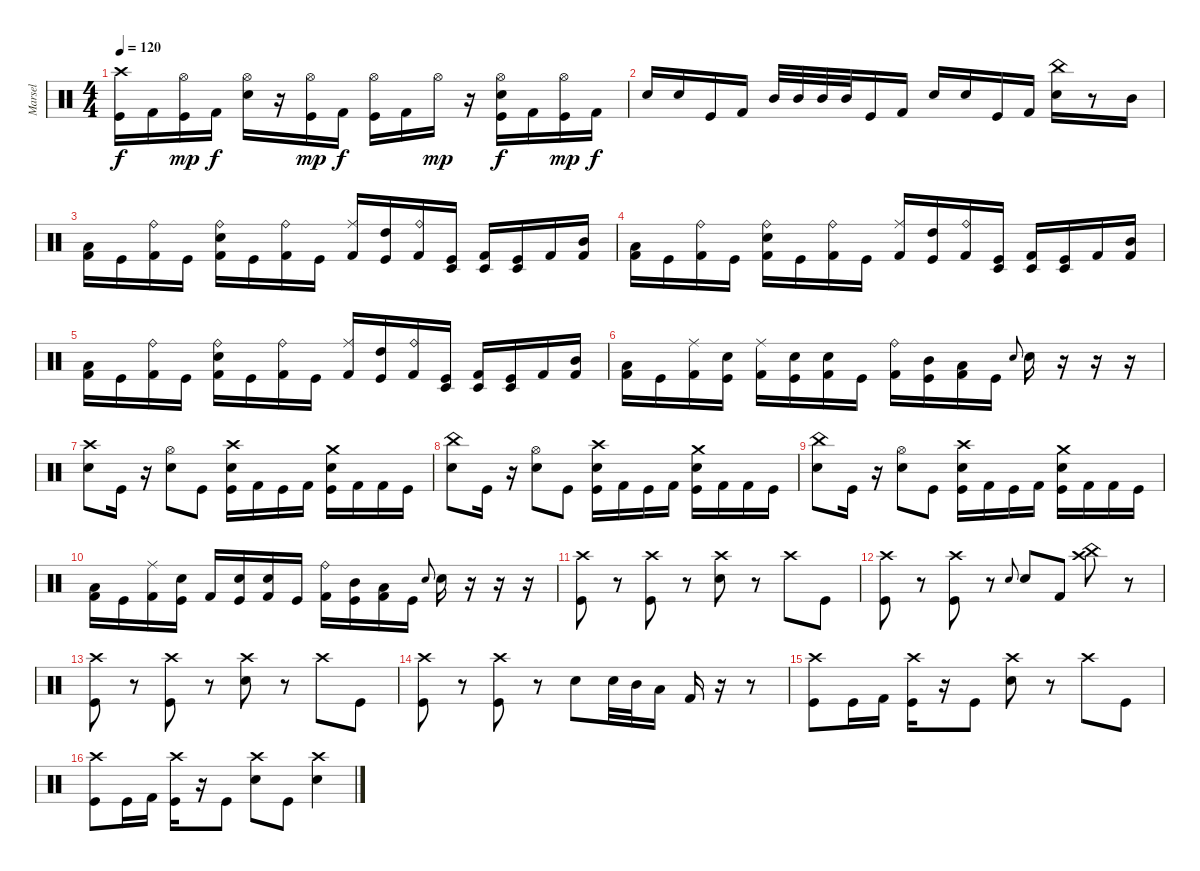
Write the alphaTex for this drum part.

\track ("Marsel" "Marsel") {instrument percussion}
\staff {score}
\articulation defaults
\ts (4 4)
\tempo 120
\clef neutral
\ks c
("Crash high (hit)" "Kick (hit)").16{dy f} "Kick (hit) 2".16 ("Hi-Hat (open)" "Kick (hit)").16{dy mp} "Kick (hit) 2".16{dy f} ("Hi-Hat (open)" "Snare (hit) 2").16 r.16 ("Hi-Hat (open)" "Kick (hit)").16{dy mp} "Kick (hit) 2".16{dy f} ("Hi-Hat (open)" "Kick (hit)").16 "Kick (hit) 2".16 "Hi-Hat (open)".16{dy mp} r.16 ("Hi-Hat (open)" "Snare (hit) 2" "Kick (hit)").16{dy f} "Kick (hit) 2".16 ("Hi-Hat (open)" "Kick (hit)").16{dy mp} "Kick (hit) 2".16{dy f} |
"Snare (hit) 2".16 "Snare (hit) 2".16 "Kick (hit)".16 "Kick (hit) 2".16 "Mid Tom (hit)".32 "Mid Tom (hit)".32 "Mid Tom (hit)".32 "Mid Tom (hit)".32 "Kick (hit)".16 "Kick (hit) 2".16 "Snare (hit) 2".16 "Snare (hit) 2".16 "Kick (hit)".16 "Kick (hit) 2".16 ("China (hit)" "Snare (hit) 2").16 r.8 "Mid Tom (hit)".16 |
("Low Tom (hit)" "Kick (hit) 2").16 "Kick (hit)".16 ("Ride (bell)" "Kick (hit) 2").16 "Kick (hit)".16 ("Ride (bell)" "Snare (hit) 2" "Kick (hit) 2").16 "Kick (hit)".16 ("Ride (bell)" "Kick (hit) 2").16 "Kick (hit)".16 ("Ride (middle)" "Kick (hit) 2").16 ("High Tom (hit)" "Kick (hit)").16 ("Ride (bell)" "Kick (hit) 2").16 ("Timbale low (hit)" "Kick (hit)").16 ("Timbale low (hit)" "Kick (hit) 2").16 ("Timbale low (hit)" "Kick (hit)").16 "Kick (hit) 2".16 ("Mid Tom (hit)" "Kick (hit) 2").16 |
("Low Tom (hit)" "Kick (hit) 2").16 "Kick (hit)".16 ("Ride (bell)" "Kick (hit) 2").16 "Kick (hit)".16 ("Ride (bell)" "Snare (hit) 2" "Kick (hit) 2").16 "Kick (hit)".16 ("Ride (bell)" "Kick (hit) 2").16 "Kick (hit)".16 ("Ride (middle)" "Kick (hit) 2").16 ("High Tom (hit)" "Kick (hit)").16 ("Ride (bell)" "Kick (hit) 2").16 ("Timbale low (hit)" "Kick (hit)").16 ("Timbale low (hit)" "Kick (hit) 2").16 ("Timbale low (hit)" "Kick (hit)").16 "Kick (hit) 2".16 ("Mid Tom (hit)" "Kick (hit) 2").16 |
("Low Tom (hit)" "Kick (hit) 2").16 "Kick (hit)".16 ("Ride (bell)" "Kick (hit) 2").16 "Kick (hit)".16 ("Ride (bell)" "Snare (hit) 2" "Kick (hit) 2").16 "Kick (hit)".16 ("Ride (bell)" "Kick (hit) 2").16 "Kick (hit)".16 ("Ride (middle)" "Kick (hit) 2").16 ("High Tom (hit)" "Kick (hit)").16 ("Ride (bell)" "Kick (hit) 2").16 ("Timbale low (hit)" "Kick (hit)").16 ("Timbale low (hit)" "Kick (hit) 2").16 ("Timbale low (hit)" "Kick (hit)").16 "Kick (hit) 2".16 ("Mid Tom (hit)" "Kick (hit) 2").16 |
("Low Tom (hit)" "Kick (hit) 2").16 "Kick (hit)".16 ("Ride (middle)" "Kick (hit) 2").16 ("Snare (hit) 2" "Kick (hit)").16 ("Ride (middle)" "Kick (hit) 2").16 ("Snare (hit) 2" "Kick (hit)").16 ("Snare (hit) 2" "Kick (hit) 2").16 "Kick (hit)".16 ("Ride (bell)" "Kick (hit) 2").16 ("Mid Tom (hit)" "Kick (hit)").16 ("Low Tom (hit)" "Kick (hit) 2").16 "Kick (hit)".16 "Snare (hit) 2".8{gr onbeat} "Snare (hit) 2".16 r.16 r.16 r.16 |
("Crash high (hit)" "Snare (hit) 2").8 "Kick (hit)".16 r.16 ("Hi-Hat (open)" "Snare (hit) 2").8 "Kick (hit)".8 ("Crash high (hit)" "Snare (hit) 2" "Kick (hit)").16 "Kick (hit) 2".16 "Kick (hit)".16 "Kick (hit) 2".16 ("Crash medium (hit)" "Snare (hit) 2" "Kick (hit)").16 "Kick (hit) 2".16 "Kick (hit) 2".16 "Kick (hit)".16 |
("China (hit)" "Snare (hit) 2").8 "Kick (hit)".16 r.16 ("Hi-Hat (open)" "Snare (hit) 2").8 "Kick (hit)".8 ("Crash high (hit)" "Snare (hit) 2" "Kick (hit)").16 "Kick (hit) 2".16 "Kick (hit)".16 "Kick (hit) 2".16 ("Crash medium (hit)" "Snare (hit) 2" "Kick (hit)").16 "Kick (hit) 2".16 "Kick (hit) 2".16 "Kick (hit)".16 |
("China (hit)" "Snare (hit) 2").8 "Kick (hit)".16 r.16 ("Hi-Hat (open)" "Snare (hit) 2").8 "Kick (hit)".8 ("Crash high (hit)" "Snare (hit) 2" "Kick (hit)").16 "Kick (hit) 2".16 "Kick (hit)".16 "Kick (hit) 2".16 ("Crash medium (hit)" "Snare (hit) 2" "Kick (hit)").16 "Kick (hit) 2".16 "Kick (hit) 2".16 "Kick (hit)".16 |
("Low Tom (hit)" "Kick (hit) 2").16 "Kick (hit)".16 ("Ride (middle)" "Kick (hit) 2").16 ("Snare (hit) 2" "Kick (hit)").16 "Kick (hit) 2".16 ("Snare (hit) 2" "Kick (hit)").16 ("Snare (hit) 2" "Kick (hit) 2").16 "Kick (hit)".16 ("Ride (bell)" "Kick (hit) 2").16 ("Mid Tom (hit)" "Kick (hit)").16 ("Low Tom (hit)" "Kick (hit) 2").16 "Kick (hit)".16 "Snare (hit) 2".8{gr onbeat} "Snare (hit) 2".16 r.16 r.16 r.16 |
("Crash high (hit)" "Kick (hit)").8 r.8 ("Crash high (hit)" "Kick (hit)").8 r.8 ("Crash high (hit)" "Snare (hit) 2").8 r.8 "Crash high (hit)".8 "Kick (hit)".8 |
("Crash high (hit)" "Kick (hit)").8 r.8 ("Crash high (hit)" "Kick (hit)").8 r.8 "Snare (hit) 2".8{gr onbeat} "Snare (hit) 2".8 "Kick (hit) 2".8 ("China (hit)" "Crash high (hit)").8 r.8 |
("Crash high (hit)" "Kick (hit)").8 r.8 ("Crash high (hit)" "Kick (hit)").8 r.8 ("Crash high (hit)" "Snare (hit) 2").8 r.8 "Crash high (hit)".8 "Kick (hit)".8 |
("Crash high (hit)" "Kick (hit)").8 r.8 ("Crash high (hit)" "Kick (hit)").8 r.8 "Snare (hit) 2".8 "Snare (hit) 2".32 "Mid Tom (hit)".32 "Low Tom (hit)".16 "Kick (hit) 2".16 r.16 r.8 |
("Crash high (hit)" "Kick (hit)").8 "Kick (hit)".16 "Kick (hit) 2".16 ("Crash high (hit)" "Kick (hit)").16 r.16 "Kick (hit)".8 ("Crash high (hit)" "Snare (hit) 2").8 r.8 "Crash high (hit)".8 "Kick (hit)".8 |
("Crash high (hit)" "Kick (hit)").8 "Kick (hit)".16 "Kick (hit) 2".16 ("Crash high (hit)" "Kick (hit)").16 r.16 "Kick (hit)".8 ("Crash high (hit)" "Snare (hit) 2").8 "Kick (hit)".8 ("Crash high (hit)" "Snare (hit) 2").4
